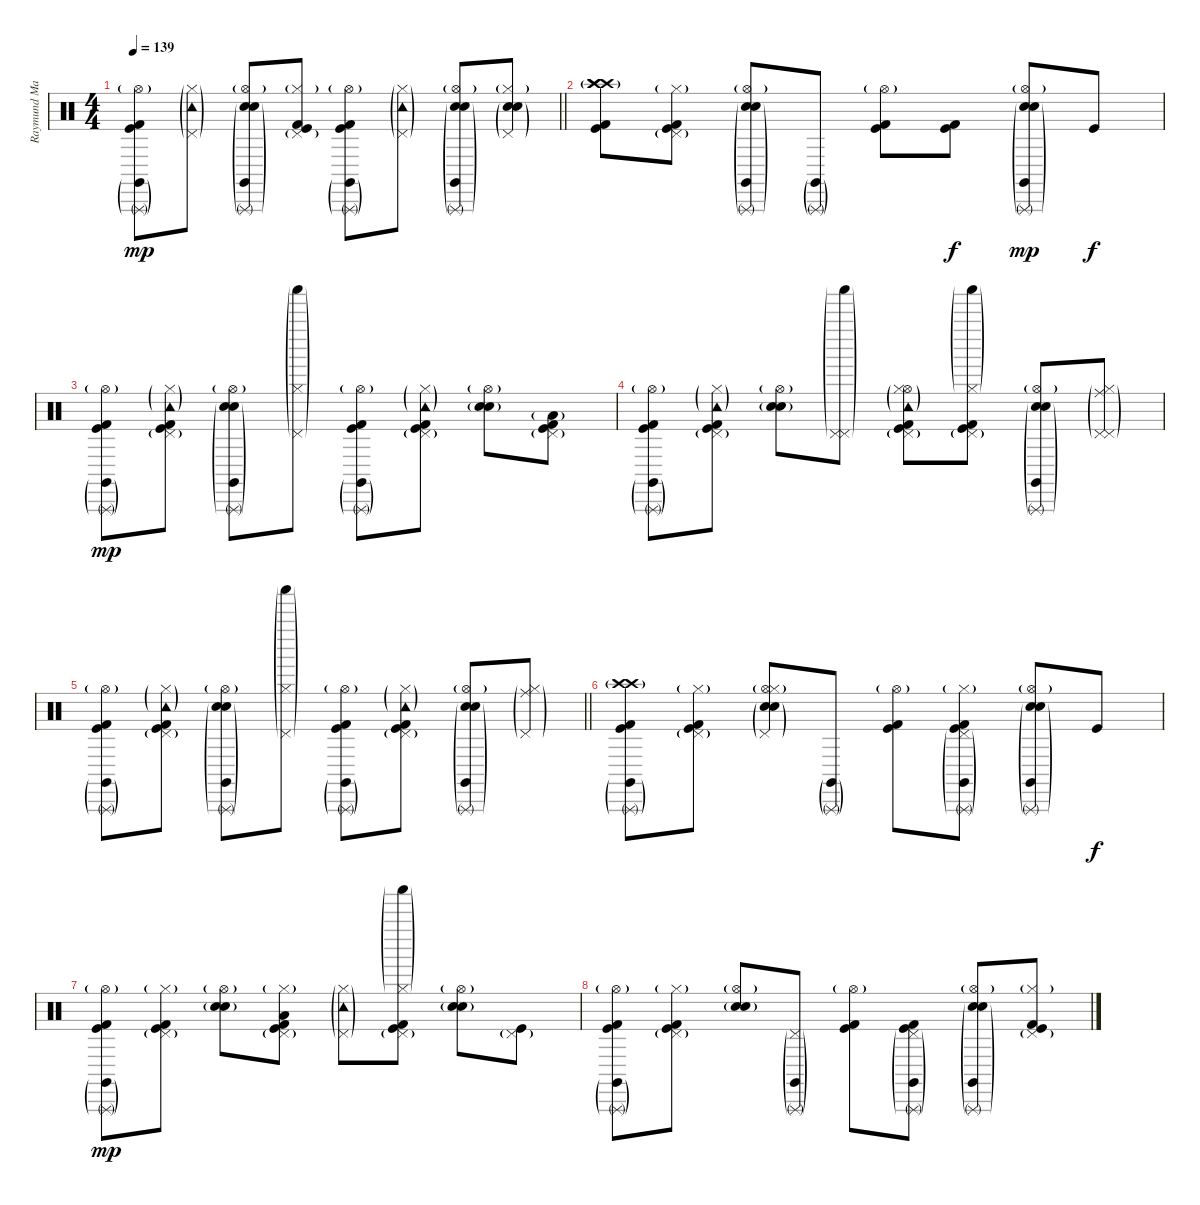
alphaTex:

\track ("Raymund Marasigan(Drums)" "Raymund Ma") {instrument percussion}
\staff {score}
\articulation defaults
\ts (4 4)
\tempo 139
\clef neutral
\barLineRight lightlight
\ks c
("Kick (hit) 2" "Kick (hit)" "Triangle (rnute)"{g} "Claves (hit)"{g} "Hi-Hat (open)"{g}).8{dy mp} ("Pedal Hi-Hat (hit)"{g} "Hi-Hat (closed)"{g} "Tambourine (hit)"{g}).8 ("Electric Snare (hit)" "Snare (hit) 2"{g} "Hi-Hat (open)"{g} "Triangle (rnute)"{g} "Claves (hit)"{g}).8 ("Kick (hit) 2" "Kick (hit)" "Pedal Hi-Hat (hit)"{g} "Hi-Hat (closed)"{g}).8 ("Kick (hit) 2" "Kick (hit)" "Triangle (rnute)"{g} "Claves (hit)"{g} "Hi-Hat (open)"{g}).8 ("Pedal Hi-Hat (hit)"{g} "Hi-Hat (closed)"{g} "Tambourine (hit)"{g}).8 ("Electric Snare (hit)" "Snare (hit) 2"{g} "Hi-Hat (open)"{g} "Triangle (rnute)"{g} "Claves (hit)"{g}).8 ("Electric Snare (hit)" "Snare (hit) 2"{g} "Pedal Hi-Hat (hit)"{g} "Hi-Hat (closed)"{g}).8 |
("Crash high (hit)"{g} "Crash high (hit)"{g} "Crash high (hit)"{g} "Kick (hit) 2" "Kick (hit)").8 ("Pedal Hi-Hat (hit)"{g} "Hi-Hat (closed)"{g} "Kick (hit) 2" "Kick (hit)").8 ("Electric Snare (hit)" "Snare (hit) 2"{g} "Hi-Hat (open)"{g} "Triangle (rnute)"{g} "Claves (hit)"{g}).8 ("Triangle (rnute)"{g} "Claves (hit)"{g}).8 ("Kick (hit) 2" "Kick (hit)" "Hi-Hat (open)"{g}).8 ("Kick (hit) 2" "Kick (hit)").8{dy f} ("Electric Snare (hit)" "Snare (hit) 2"{g} "Hi-Hat (open)"{g} "Triangle (rnute)"{g} "Claves (hit)"{g}).8{dy mp} "Kick (hit)".8{dy f} |
("Kick (hit) 2" "Kick (hit)" "Triangle (rnute)"{g} "Claves (hit)"{g} "Hi-Hat (open)"{g}).8{dy mp} ("Pedal Hi-Hat (hit)"{g} "Hi-Hat (closed)"{g} "Tambourine (hit)"{g} "Kick (hit) 2" "Kick (hit)").8 ("Electric Snare (hit)" "Snare (hit) 2"{g} "Hi-Hat (open)"{g} "Triangle (rnute)"{g} "Claves (hit)"{g}).8 ("Pedal Hi-Hat (hit)"{g} "Hi-Hat (closed)"{g} "Shaker (hit)"{g}).8 ("Kick (hit) 2" "Kick (hit)" "Triangle (rnute)"{g} "Claves (hit)"{g} "Hi-Hat (open)"{g}).8 ("Pedal Hi-Hat (hit)"{g} "Hi-Hat (closed)"{g} "Tambourine (hit)"{g} "Kick (hit) 2" "Kick (hit)").8 ("Electric Snare (hit)" "Snare (hit) 2"{g} "Hi-Hat (open)"{g}).8 ("Pedal Hi-Hat (hit)"{g} "Low Tom (hit)"{g} "Kick (hit) 2" "Kick (hit)").8 |
("Hi-Hat (open)"{g} "Triangle (rnute)"{g} "Claves (hit)"{g} "Kick (hit) 2" "Kick (hit)").8 ("Pedal Hi-Hat (hit)"{g} "Hi-Hat (closed)"{g} "Tambourine (hit)"{g} "Kick (hit) 2" "Kick (hit)").8 ("Electric Snare (hit)" "Snare (hit) 2"{g} "Hi-Hat (open)"{g}).8 ("Pedal Hi-Hat (hit)"{g} "Pedal Hi-Hat (hit)"{g} "Shaker (hit)"{g}).8 ("Kick (hit) 2" "Kick (hit)" "Hi-Hat (open)"{g} "Tambourine (hit)"{g} "Pedal Hi-Hat (hit)"{g} "Hi-Hat (closed)"{g}).8 ("Pedal Hi-Hat (hit)"{g} "Hi-Hat (closed)"{g} "Shaker (hit)"{g} "Kick (hit) 2" "Kick (hit)").8 ("Electric Snare (hit)" "Snare (hit) 2"{g} "Hi-Hat (open)"{g} "Triangle (rnute)"{g} "Claves (hit)"{g}).8 ("Pedal Hi-Hat (hit)"{g} "Pedal Hi-Hat (hit)"{g} "Hi-Hat (closed)"{g} "Ride (middle)"{g}).8 |
\barLineRight lightlight
("Kick (hit) 2" "Kick (hit)" "Triangle (rnute)"{g} "Claves (hit)"{g} "Hi-Hat (open)"{g}).8 ("Pedal Hi-Hat (hit)"{g} "Hi-Hat (closed)"{g} "Tambourine (hit)"{g} "Kick (hit) 2" "Kick (hit)").8 ("Electric Snare (hit)" "Snare (hit) 2"{g} "Hi-Hat (open)"{g} "Triangle (rnute)"{g} "Claves (hit)"{g}).8 ("Pedal Hi-Hat (hit)"{g} "Hi-Hat (closed)"{g} "Shaker (hit)"{g}).8 ("Kick (hit) 2" "Kick (hit)" "Triangle (rnute)"{g} "Claves (hit)"{g} "Hi-Hat (open)"{g}).8 ("Pedal Hi-Hat (hit)"{g} "Hi-Hat (closed)"{g} "Tambourine (hit)"{g} "Kick (hit) 2" "Kick (hit)").8 ("Electric Snare (hit)" "Snare (hit) 2"{g} "Hi-Hat (open)"{g} "Triangle (rnute)"{g} "Claves (hit)"{g}).8 ("Pedal Hi-Hat (hit)"{g} "Hi-Hat (closed)"{g} "Ride (middle)"{g}).8 |
("Crash high (hit)"{g} "Crash high (hit)"{g} "Kick (hit) 2" "Kick (hit)" "Triangle (rnute)"{g} "Claves (hit)"{g}).8 ("Pedal Hi-Hat (hit)"{g} "Hi-Hat (closed)"{g} "Kick (hit) 2" "Kick (hit)").8 ("Electric Snare (hit)" "Snare (hit) 2"{g} "Hi-Hat (open)"{g} "Pedal Hi-Hat (hit)"{g} "Hi-Hat (closed)"{g}).8 ("Triangle (rnute)"{g} "Claves (hit)"{g}).8 ("Kick (hit) 2" "Kick (hit)" "Hi-Hat (open)"{g}).8 ("Kick (hit) 2" "Kick (hit)" "Triangle (rnute)"{g} "Claves (hit)"{g} "Pedal Hi-Hat (hit)"{g} "Hi-Hat (closed)"{g}).8 ("Electric Snare (hit)" "Snare (hit) 2"{g} "Hi-Hat (open)"{g} "Triangle (rnute)"{g} "Claves (hit)"{g}).8 "Kick (hit)".8{dy f} |
("Kick (hit) 2" "Kick (hit)" "Triangle (rnute)"{g} "Claves (hit)"{g} "Hi-Hat (open)"{g}).8{dy mp} ("Pedal Hi-Hat (hit)"{g} "Hi-Hat (closed)"{g} "Kick (hit) 2" "Kick (hit)").8 ("Electric Snare (hit)" "Snare (hit) 2"{g} "Hi-Hat (open)"{g}).8 ("Kick (hit) 2" "Kick (hit)" "Pedal Hi-Hat (hit)"{g} "Hi-Hat (closed)"{g} "Low Tom (hit)").8 ("Pedal Hi-Hat (hit)"{g} "Hi-Hat (closed)"{g} "Tambourine (hit)"{g}).8 ("Kick (hit) 2" "Kick (hit)" "Pedal Hi-Hat (hit)"{g} "Hi-Hat (closed)"{g} "Shaker (hit)"{g}).8 ("Electric Snare (hit)" "Snare (hit) 2"{g} "Hi-Hat (open)"{g}).8 ("Pedal Hi-Hat (hit)"{g} "Kick (hit)").8 |
("Hi-Hat (open)"{g} "Triangle (rnute)"{g} "Claves (hit)"{g} "Kick (hit) 2" "Kick (hit)").8 ("Pedal Hi-Hat (hit)"{g} "Hi-Hat (closed)"{g} "Kick (hit) 2" "Kick (hit)").8 ("Electric Snare (hit)" "Snare (hit) 2"{g} "Hi-Hat (open)"{g}).8 ("Pedal Hi-Hat (hit)"{g} "Triangle (rnute)"{g} "Claves (hit)"{g}).8 ("Kick (hit) 2" "Kick (hit)" "Hi-Hat (open)"{g}).8 ("Kick (hit) 2" "Kick (hit)" "Pedal Hi-Hat (hit)"{g} "Triangle (rnute)"{g} "Claves (hit)"{g}).8 ("Electric Snare (hit)" "Snare (hit) 2"{g} "Hi-Hat (open)"{g} "Triangle (rnute)"{g} "Claves (hit)"{g}).8 ("Kick (hit)" "Kick (hit) 2" "Pedal Hi-Hat (hit)"{g} "Hi-Hat (closed)"{g}).8
